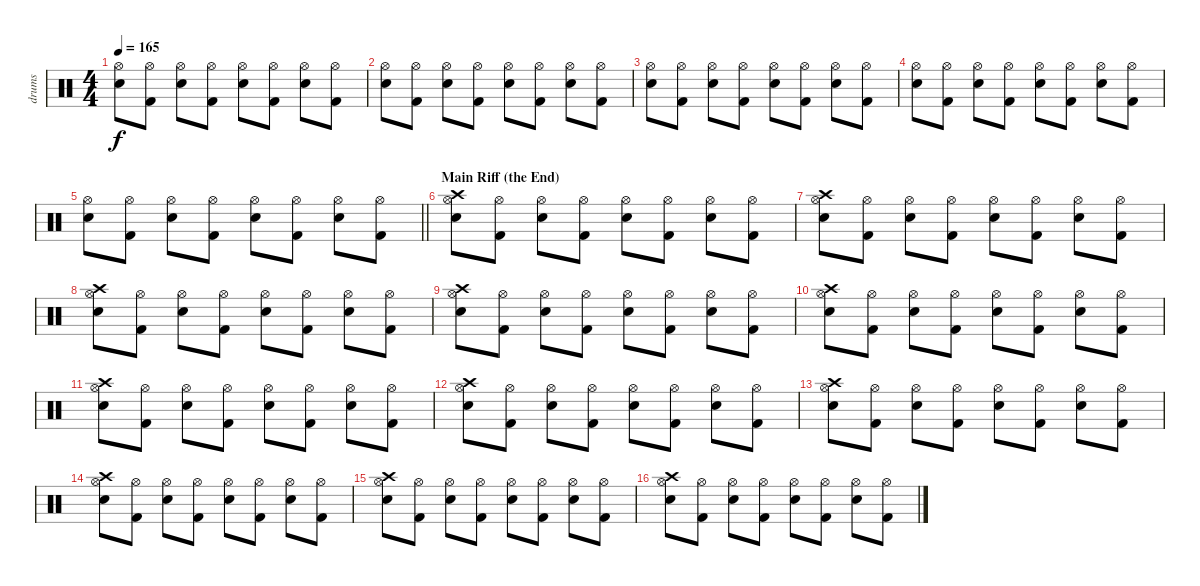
\track ("drums" "drums") {instrument percussion}
\staff {score}
\articulation defaults
\ts (4 4)
\tempo 165
\clef neutral
\ks c
("Hi-Hat (open)" "Electric Snare (hit)").8{dy f} ("Hi-Hat (open)" "Kick (hit) 2").8 ("Hi-Hat (open)" "Electric Snare (hit)").8 ("Hi-Hat (open)" "Kick (hit) 2").8 ("Hi-Hat (open)" "Electric Snare (hit)").8 ("Hi-Hat (open)" "Kick (hit) 2").8 ("Hi-Hat (open)" "Electric Snare (hit)").8 ("Hi-Hat (open)" "Kick (hit) 2").8 |
("Hi-Hat (open)" "Electric Snare (hit)").8 ("Hi-Hat (open)" "Kick (hit) 2").8 ("Hi-Hat (open)" "Electric Snare (hit)").8 ("Hi-Hat (open)" "Kick (hit) 2").8 ("Hi-Hat (open)" "Electric Snare (hit)").8 ("Hi-Hat (open)" "Kick (hit) 2").8 ("Hi-Hat (open)" "Electric Snare (hit)").8 ("Hi-Hat (open)" "Kick (hit) 2").8 |
("Hi-Hat (open)" "Electric Snare (hit)").8 ("Hi-Hat (open)" "Kick (hit) 2").8 ("Hi-Hat (open)" "Electric Snare (hit)").8 ("Hi-Hat (open)" "Kick (hit) 2").8 ("Hi-Hat (open)" "Electric Snare (hit)").8 ("Hi-Hat (open)" "Kick (hit) 2").8 ("Hi-Hat (open)" "Electric Snare (hit)").8 ("Hi-Hat (open)" "Kick (hit) 2").8 |
("Hi-Hat (open)" "Electric Snare (hit)").8 ("Hi-Hat (open)" "Kick (hit) 2").8 ("Hi-Hat (open)" "Electric Snare (hit)").8 ("Hi-Hat (open)" "Kick (hit) 2").8 ("Hi-Hat (open)" "Electric Snare (hit)").8 ("Hi-Hat (open)" "Kick (hit) 2").8 ("Hi-Hat (open)" "Electric Snare (hit)").8 ("Hi-Hat (open)" "Kick (hit) 2").8 |
\barLineRight lightlight
("Hi-Hat (open)" "Electric Snare (hit)").8 ("Hi-Hat (open)" "Kick (hit) 2").8 ("Hi-Hat (open)" "Electric Snare (hit)").8 ("Hi-Hat (open)" "Kick (hit) 2").8 ("Hi-Hat (open)" "Electric Snare (hit)").8 ("Hi-Hat (open)" "Kick (hit) 2").8 ("Hi-Hat (open)" "Electric Snare (hit)").8 ("Hi-Hat (open)" "Kick (hit) 2").8 |
\section ("" "Main Riff (the End)")
("Crash high (hit)" "Hi-Hat (open)" "Electric Snare (hit)").8 ("Hi-Hat (open)" "Kick (hit) 2").8 ("Hi-Hat (open)" "Electric Snare (hit)").8 ("Hi-Hat (open)" "Kick (hit) 2").8 ("Hi-Hat (open)" "Electric Snare (hit)").8 ("Hi-Hat (open)" "Kick (hit) 2").8 ("Hi-Hat (open)" "Electric Snare (hit)").8 ("Hi-Hat (open)" "Kick (hit) 2").8 |
("Crash high (hit)" "Hi-Hat (open)" "Electric Snare (hit)").8 ("Hi-Hat (open)" "Kick (hit) 2").8 ("Hi-Hat (open)" "Electric Snare (hit)").8 ("Hi-Hat (open)" "Kick (hit) 2").8 ("Hi-Hat (open)" "Electric Snare (hit)").8 ("Hi-Hat (open)" "Kick (hit) 2").8 ("Hi-Hat (open)" "Electric Snare (hit)").8 ("Hi-Hat (open)" "Kick (hit) 2").8 |
("Crash high (hit)" "Hi-Hat (open)" "Electric Snare (hit)").8 ("Hi-Hat (open)" "Kick (hit) 2").8 ("Hi-Hat (open)" "Electric Snare (hit)").8 ("Hi-Hat (open)" "Kick (hit) 2").8 ("Hi-Hat (open)" "Electric Snare (hit)").8 ("Hi-Hat (open)" "Kick (hit) 2").8 ("Hi-Hat (open)" "Electric Snare (hit)").8 ("Hi-Hat (open)" "Kick (hit) 2").8 |
("Crash high (hit)" "Hi-Hat (open)" "Electric Snare (hit)").8 ("Hi-Hat (open)" "Kick (hit) 2").8 ("Hi-Hat (open)" "Electric Snare (hit)").8 ("Hi-Hat (open)" "Kick (hit) 2").8 ("Hi-Hat (open)" "Electric Snare (hit)").8 ("Hi-Hat (open)" "Kick (hit) 2").8 ("Hi-Hat (open)" "Electric Snare (hit)").8 ("Hi-Hat (open)" "Kick (hit) 2").8 |
("Crash high (hit)" "Hi-Hat (open)" "Electric Snare (hit)").8 ("Hi-Hat (open)" "Kick (hit) 2").8 ("Hi-Hat (open)" "Electric Snare (hit)").8 ("Hi-Hat (open)" "Kick (hit) 2").8 ("Hi-Hat (open)" "Electric Snare (hit)").8 ("Hi-Hat (open)" "Kick (hit) 2").8 ("Hi-Hat (open)" "Electric Snare (hit)").8 ("Hi-Hat (open)" "Kick (hit) 2").8 |
("Crash high (hit)" "Hi-Hat (open)" "Electric Snare (hit)").8 ("Hi-Hat (open)" "Kick (hit) 2").8 ("Hi-Hat (open)" "Electric Snare (hit)").8 ("Hi-Hat (open)" "Kick (hit) 2").8 ("Hi-Hat (open)" "Electric Snare (hit)").8 ("Hi-Hat (open)" "Kick (hit) 2").8 ("Hi-Hat (open)" "Electric Snare (hit)").8 ("Hi-Hat (open)" "Kick (hit) 2").8 |
("Crash high (hit)" "Hi-Hat (open)" "Electric Snare (hit)").8 ("Hi-Hat (open)" "Kick (hit) 2").8 ("Hi-Hat (open)" "Electric Snare (hit)").8 ("Hi-Hat (open)" "Kick (hit) 2").8 ("Hi-Hat (open)" "Electric Snare (hit)").8 ("Hi-Hat (open)" "Kick (hit) 2").8 ("Hi-Hat (open)" "Electric Snare (hit)").8 ("Hi-Hat (open)" "Kick (hit) 2").8 |
("Crash high (hit)" "Hi-Hat (open)" "Electric Snare (hit)").8 ("Hi-Hat (open)" "Kick (hit) 2").8 ("Hi-Hat (open)" "Electric Snare (hit)").8 ("Hi-Hat (open)" "Kick (hit) 2").8 ("Hi-Hat (open)" "Electric Snare (hit)").8 ("Hi-Hat (open)" "Kick (hit) 2").8 ("Hi-Hat (open)" "Electric Snare (hit)").8 ("Hi-Hat (open)" "Kick (hit) 2").8 |
("Crash high (hit)" "Hi-Hat (open)" "Electric Snare (hit)").8 ("Hi-Hat (open)" "Kick (hit) 2").8 ("Hi-Hat (open)" "Electric Snare (hit)").8 ("Hi-Hat (open)" "Kick (hit) 2").8 ("Hi-Hat (open)" "Electric Snare (hit)").8 ("Hi-Hat (open)" "Kick (hit) 2").8 ("Hi-Hat (open)" "Electric Snare (hit)").8 ("Hi-Hat (open)" "Kick (hit) 2").8 |
("Crash high (hit)" "Hi-Hat (open)" "Electric Snare (hit)").8 ("Hi-Hat (open)" "Kick (hit) 2").8 ("Hi-Hat (open)" "Electric Snare (hit)").8 ("Hi-Hat (open)" "Kick (hit) 2").8 ("Hi-Hat (open)" "Electric Snare (hit)").8 ("Hi-Hat (open)" "Kick (hit) 2").8 ("Hi-Hat (open)" "Electric Snare (hit)").8 ("Hi-Hat (open)" "Kick (hit) 2").8 |
("Crash high (hit)" "Hi-Hat (open)" "Electric Snare (hit)").8 ("Hi-Hat (open)" "Kick (hit) 2").8 ("Hi-Hat (open)" "Electric Snare (hit)").8 ("Hi-Hat (open)" "Kick (hit) 2").8 ("Hi-Hat (open)" "Electric Snare (hit)").8 ("Hi-Hat (open)" "Kick (hit) 2").8 ("Hi-Hat (open)" "Electric Snare (hit)").8 ("Hi-Hat (open)" "Kick (hit) 2").8
